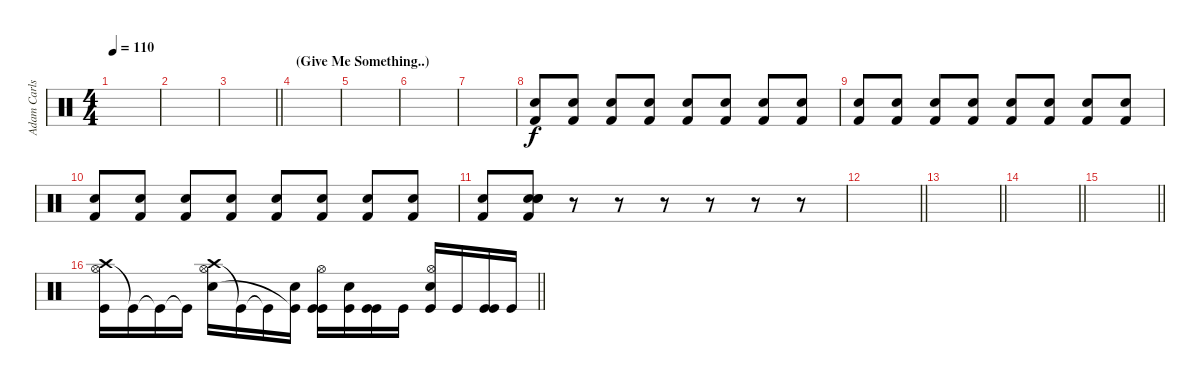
\track ("Adam Carlson(Natural Drums)" "Adam Carls") {instrument percussion}
\staff {score}
\articulation defaults
\ts (4 4)
\tempo 110
\clef neutral
\ks c
|
|
\barLineRight lightlight
|
\section ("" "(Give Me Something..)")
|
|
|
|
("Electric Snare (hit)" "Kick (hit) 2").8{volume 0} ("Electric Snare (hit)" "Kick (hit) 2").8{volume 13} ("Electric Snare (hit)" "Kick (hit) 2").8 ("Electric Snare (hit)" "Kick (hit) 2").8 ("Electric Snare (hit)" "Kick (hit) 2").8 ("Electric Snare (hit)" "Kick (hit) 2").8 ("Electric Snare (hit)" "Kick (hit) 2").8 ("Electric Snare (hit)" "Kick (hit) 2").8 |
("Electric Snare (hit)" "Kick (hit) 2").8 ("Electric Snare (hit)" "Kick (hit) 2").8 ("Electric Snare (hit)" "Kick (hit) 2").8 ("Electric Snare (hit)" "Kick (hit) 2").8 ("Electric Snare (hit)" "Kick (hit) 2").8 ("Electric Snare (hit)" "Kick (hit) 2").8 ("Electric Snare (hit)" "Kick (hit) 2").8 ("Electric Snare (hit)" "Kick (hit) 2").8 |
("Electric Snare (hit)" "Kick (hit) 2").8 ("Electric Snare (hit)" "Kick (hit) 2").8 ("Electric Snare (hit)" "Kick (hit) 2").8 ("Electric Snare (hit)" "Kick (hit) 2").8 ("Electric Snare (hit)" "Kick (hit) 2").8 ("Electric Snare (hit)" "Kick (hit) 2").8 ("Electric Snare (hit)" "Kick (hit) 2").8 ("Electric Snare (hit)" "Kick (hit) 2").8 |
("Electric Snare (hit)" "Kick (hit) 2").8 ("Electric Snare (hit)" "Electric Snare (hit)" "Electric Snare (hit)" "Kick (hit) 2").8 r.8 r.8 r.8 r.8 r.8 r.8 |
\barLineRight lightlight
|
\barLineRight lightlight
|
\barLineRight lightlight
|
\barLineRight lightlight
|
\barLineRight lightlight
("Hi-Hat (open)" "Kick (hit)" "Crash high (hit)").16 "Kick (hit)"{t}.16 "Kick (hit)"{t}.16 "Kick (hit)"{t}.16 ("Hi-Hat (open)" "Electric Snare (hit)" "Crash high (hit)").16 "Kick (hit)"{t}.16 "Kick (hit)"{t}.16 ("Electric Snare (hit)" "Kick (hit)"{t}).16 ("Hi-Hat (open)" "Kick (hit)" "Kick (hit)").16 ("Electric Snare (hit)" "Kick (hit)").16 ("Kick (hit)" "Kick (hit)").16 "Kick (hit)".16 ("Hi-Hat (open)" "Electric Snare (hit)" "Kick (hit)").16 "Kick (hit)".16 ("Kick (hit)" "Kick (hit)").16 "Kick (hit)".16
